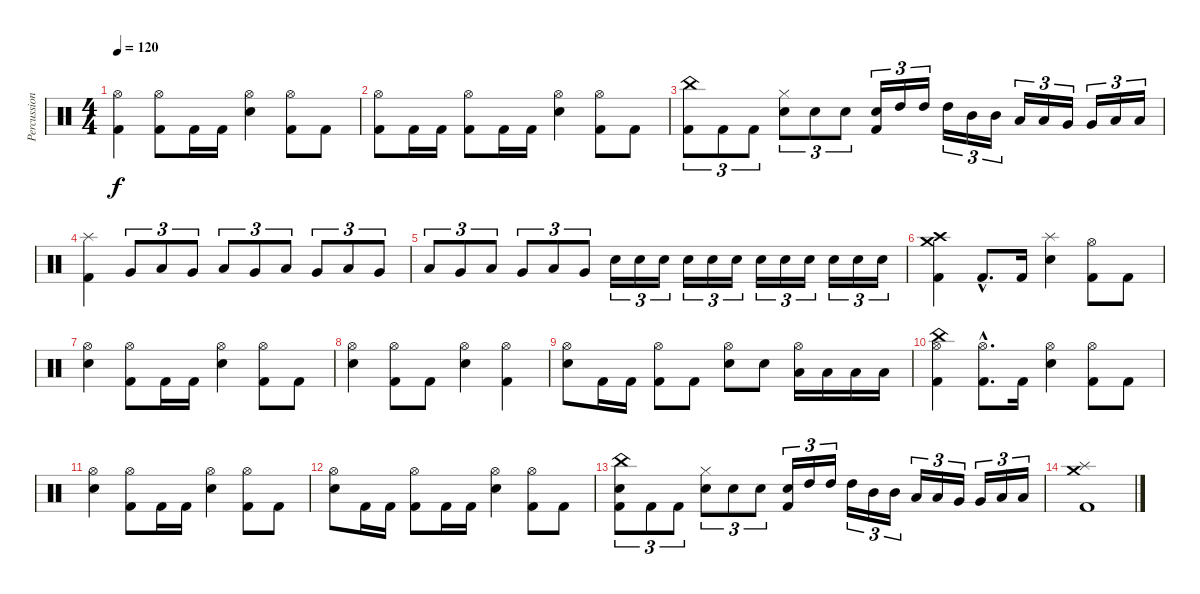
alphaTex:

\track ("Percussion" "Percussion") {instrument percussion}
\staff {score}
\articulation defaults
\ts (4 4)
\tempo 120
\clef neutral
\ks c
("Hi-Hat (open)" "Kick (hit) 2").4{dy f} ("Hi-Hat (open)" "Kick (hit) 2").8 "Kick (hit) 2".16 "Kick (hit) 2".16 ("Hi-Hat (open)" "Electric Snare (hit)").4 ("Hi-Hat (open)" "Kick (hit) 2").8 "Kick (hit) 2".8 |
("Hi-Hat (open)" "Kick (hit) 2").8 "Kick (hit) 2".16 "Kick (hit) 2".16 ("Hi-Hat (open)" "Kick (hit) 2").8 "Kick (hit) 2".16 "Kick (hit) 2".16 ("Hi-Hat (open)" "Electric Snare (hit)").4 ("Hi-Hat (open)" "Kick (hit) 2").8 "Kick (hit) 2".8 |
("China (hit)" "Kick (hit) 2").8{tu (3 2)} "Kick (hit) 2".8{tu (3 2)} "Kick (hit) 2".8{tu (3 2)} ("Hi-Hat (closed)" "Electric Snare (hit)").8{tu (3 2)} "Electric Snare (hit)".8{tu (3 2)} "Electric Snare (hit)".8{tu (3 2)} ("Electric Snare (hit)" "Kick (hit) 2").16{tu (3 2)} "High Tom (hit)".16{tu (3 2)} "High Tom (hit)".16{tu (3 2)} "High Tom (hit)".16{tu (3 2)} "Mid Tom (hit)".16{tu (3 2)} "Mid Tom (hit)".16{tu (3 2)} "Low Tom (hit)".16{tu (3 2)} "Low Tom (hit)".16{tu (3 2)} "Very Low Tom (hit)".16{tu (3 2)} "Very Low Tom (hit)".16{tu (3 2)} "Low Floor Tom (hit)".16{tu (3 2)} "Low Floor Tom (hit)".16{tu (3 2)} |
("Splash (hit)" "Kick (hit) 2").4 "Very Low Tom (hit)".8{tu (3 2)} "Low Tom (hit)".8{tu (3 2)} "Very Low Tom (hit)".8{tu (3 2)} "Low Tom (hit)".8{tu (3 2)} "Very Low Tom (hit)".8{tu (3 2)} "Low Tom (hit)".8{tu (3 2)} "Very Low Tom (hit)".8{tu (3 2)} "Low Tom (hit)".8{tu (3 2)} "Very Low Tom (hit)".8{tu (3 2)} |
"Low Tom (hit)".8{tu (3 2)} "Very Low Tom (hit)".8{tu (3 2)} "Low Tom (hit)".8{tu (3 2)} "Very Low Tom (hit)".8{tu (3 2)} "Low Tom (hit)".8{tu (3 2)} "Very Low Tom (hit)".8{tu (3 2)} "Electric Snare (hit)".16{tu (3 2)} "Electric Snare (hit)".16{tu (3 2)} "Electric Snare (hit)".16{tu (3 2)} "Electric Snare (hit)".16{tu (3 2)} "Electric Snare (hit)".16{tu (3 2)} "Electric Snare (hit)".16{tu (3 2)} "Electric Snare (hit)".16{tu (3 2)} "Electric Snare (hit)".16{tu (3 2)} "Electric Snare (hit)".16{tu (3 2)} "Electric Snare (hit)".16{tu (3 2)} "Electric Snare (hit)".16{tu (3 2)} "Electric Snare (hit)".16{tu (3 2)} |
("Crash medium (hit)" "Crash high (hit)" "Kick (hit) 2").4 "Kick (hit) 2"{hac}.8{d} "Kick (hit) 2".16 ("Splash (hit)" "Electric Snare (hit)").4 ("Hi-Hat (open)" "Kick (hit) 2").8 "Kick (hit) 2".8 |
("Hi-Hat (open)" "Electric Snare (hit)").4 ("Hi-Hat (open)" "Kick (hit) 2").8 "Kick (hit) 2".16 "Kick (hit) 2".16 ("Hi-Hat (open)" "Electric Snare (hit)").4 ("Hi-Hat (open)" "Kick (hit) 2").8 "Kick (hit) 2".8 |
("Hi-Hat (open)" "Electric Snare (hit)").4 ("Hi-Hat (open)" "Kick (hit) 2").8 "Kick (hit) 2".8 ("Hi-Hat (open)" "Electric Snare (hit)").4 ("Hi-Hat (open)" "Kick (hit) 2").4 |
("Hi-Hat (open)" "Electric Snare (hit)").8 "Kick (hit) 2".16 "Kick (hit) 2".16 ("Hi-Hat (open)" "Kick (hit) 2").8 "Kick (hit) 2".8 ("Hi-Hat (open)" "Electric Snare (hit)").8 "Electric Snare (hit)".8 ("Hi-Hat (open)" "Low Tom (hit)").16 "Low Tom (hit)".16 "Low Tom (hit)".16 "Low Tom (hit)".16 |
("Hi-Hat (open)" "China (hit)" "Kick (hit) 2").4 ("Hi-Hat (open)"{hac} "Kick (hit) 2"{hac}).8{d} "Kick (hit) 2".16 ("Hi-Hat (open)" "Electric Snare (hit)").4 ("Hi-Hat (open)" "Kick (hit) 2").8 "Kick (hit) 2".8 |
("Hi-Hat (open)" "Electric Snare (hit)").4 ("Hi-Hat (open)" "Kick (hit) 2").8 "Kick (hit) 2".16 "Kick (hit) 2".16 ("Hi-Hat (open)" "Electric Snare (hit)").4 ("Hi-Hat (open)" "Kick (hit) 2").8 "Kick (hit) 2".8 |
("Hi-Hat (open)" "Electric Snare (hit)").8 "Kick (hit) 2".16 "Kick (hit) 2".16 ("Hi-Hat (open)" "Kick (hit) 2").8 "Kick (hit) 2".16 "Kick (hit) 2".16 ("Hi-Hat (open)" "Electric Snare (hit)").4 ("Hi-Hat (open)" "Kick (hit) 2").8 "Kick (hit) 2".8 |
("China (hit)" "Electric Snare (hit)" "Kick (hit) 2").8{tu (3 2)} "Kick (hit) 2".8{tu (3 2)} "Kick (hit) 2".8{tu (3 2)} ("Hi-Hat (closed)" "Electric Snare (hit)").8{tu (3 2)} "Electric Snare (hit)".8{tu (3 2)} "Electric Snare (hit)".8{tu (3 2)} ("Electric Snare (hit)" "Kick (hit) 2").16{tu (3 2)} "High Tom (hit)".16{tu (3 2)} "High Tom (hit)".16{tu (3 2)} "High Tom (hit)".16{tu (3 2)} "Mid Tom (hit)".16{tu (3 2)} "Mid Tom (hit)".16{tu (3 2)} "Low Tom (hit)".16{tu (3 2)} "Low Tom (hit)".16{tu (3 2)} "Very Low Tom (hit)".16{tu (3 2)} "Very Low Tom (hit)".16{tu (3 2)} "Low Floor Tom (hit)".16{tu (3 2)} "Low Floor Tom (hit)".16{tu (3 2)} |
("Splash (hit)" "Crash medium (hit)" "Kick (hit) 2").1
